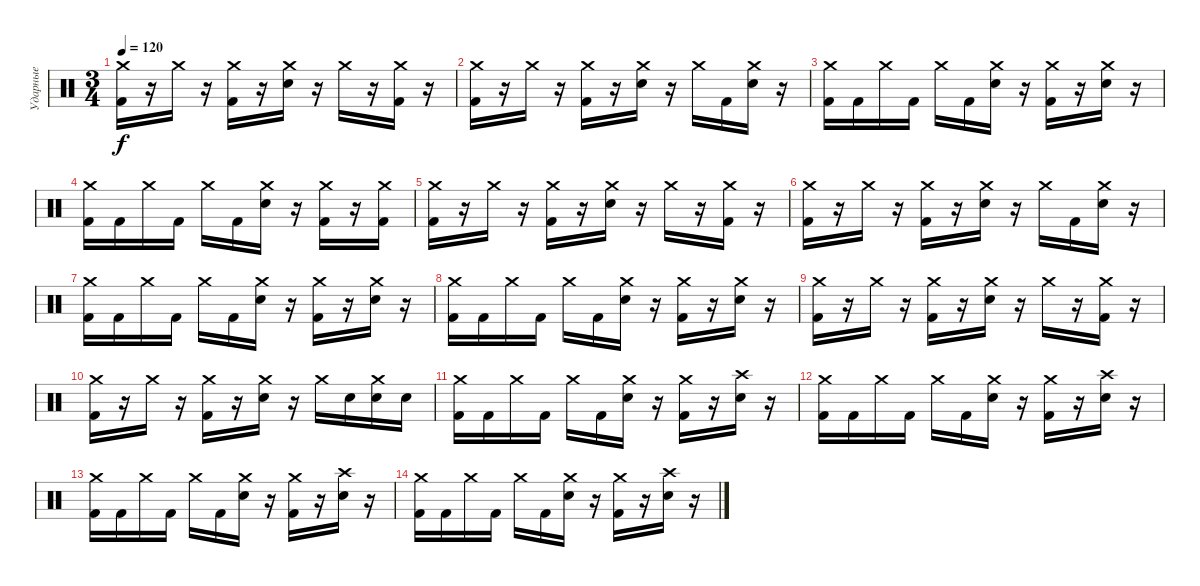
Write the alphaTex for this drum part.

\track ("Ударные" "Ударные") {instrument percussion}
\staff {score}
\articulation defaults
\ts (3 4)
\tempo 120
\clef neutral
\ks c
("Crash medium (hit)" "Kick (hit) 2").16{dy f} r.16 "Crash medium (hit)".16 r.16 ("Crash medium (hit)" "Kick (hit) 2").16 r.16 ("Crash medium (hit)" "Electric Snare (hit)").16 r.16 "Crash medium (hit)".16 r.16 ("Crash medium (hit)" "Kick (hit) 2").16 r.16 |
("Crash medium (hit)" "Kick (hit) 2").16 r.16 "Crash medium (hit)".16 r.16 ("Crash medium (hit)" "Kick (hit) 2").16 r.16 ("Crash medium (hit)" "Electric Snare (hit)").16 r.16 "Crash medium (hit)".16 "Kick (hit) 2".16 ("Crash medium (hit)" "Electric Snare (hit)").16 r.16 |
("Crash medium (hit)" "Kick (hit) 2").16 "Kick (hit) 2".16 "Crash medium (hit)".16 "Kick (hit) 2".16 "Crash medium (hit)".16 "Kick (hit) 2".16 ("Crash medium (hit)" "Electric Snare (hit)").16 r.16 ("Crash medium (hit)" "Kick (hit) 2").16 r.16 ("Crash medium (hit)" "Electric Snare (hit)").16 r.16 |
("Crash medium (hit)" "Kick (hit) 2").16 "Kick (hit) 2".16 "Crash medium (hit)".16 "Kick (hit) 2".16 "Crash medium (hit)".16 "Kick (hit) 2".16 ("Crash medium (hit)" "Electric Snare (hit)").16 r.16 ("Crash medium (hit)" "Kick (hit) 2").16 r.16 ("Crash medium (hit)" "Kick (hit) 2").16 |
("Crash medium (hit)" "Kick (hit) 2").16 r.16 "Crash medium (hit)".16 r.16 ("Crash medium (hit)" "Kick (hit) 2").16 r.16 ("Crash medium (hit)" "Electric Snare (hit)").16 r.16 "Crash medium (hit)".16 r.16 ("Crash medium (hit)" "Kick (hit) 2").16 r.16 |
("Crash medium (hit)" "Kick (hit) 2").16 r.16 "Crash medium (hit)".16 r.16 ("Crash medium (hit)" "Kick (hit) 2").16 r.16 ("Crash medium (hit)" "Electric Snare (hit)").16 r.16 "Crash medium (hit)".16 "Kick (hit) 2".16 ("Crash medium (hit)" "Electric Snare (hit)").16 r.16 |
("Crash medium (hit)" "Kick (hit) 2").16 "Kick (hit) 2".16 "Crash medium (hit)".16 "Kick (hit) 2".16 "Crash medium (hit)".16 "Kick (hit) 2".16 ("Crash medium (hit)" "Electric Snare (hit)").16 r.16 ("Crash medium (hit)" "Kick (hit) 2").16 r.16 ("Crash medium (hit)" "Electric Snare (hit)").16 r.16 |
("Crash medium (hit)" "Kick (hit) 2").16 "Kick (hit) 2".16 "Crash medium (hit)".16 "Kick (hit) 2".16 "Crash medium (hit)".16 "Kick (hit) 2".16 ("Crash medium (hit)" "Electric Snare (hit)").16 r.16 ("Crash medium (hit)" "Kick (hit) 2").16 r.16 ("Crash medium (hit)" "Electric Snare (hit)").16 r.16 |
("Crash medium (hit)" "Kick (hit) 2").16 r.16 "Crash medium (hit)".16 r.16 ("Crash medium (hit)" "Kick (hit) 2").16 r.16 ("Crash medium (hit)" "Electric Snare (hit)").16 r.16 "Crash medium (hit)".16 r.16 ("Crash medium (hit)" "Kick (hit) 2").16 r.16 |
("Crash medium (hit)" "Kick (hit) 2").16 r.16 "Crash medium (hit)".16 r.16 ("Crash medium (hit)" "Kick (hit) 2").16 r.16 ("Crash medium (hit)" "Electric Snare (hit)").16 r.16 "Crash medium (hit)".16 "Electric Snare (hit)".16 ("Crash medium (hit)" "Electric Snare (hit)").16 "Electric Snare (hit)".16 |
("Crash medium (hit)" "Kick (hit) 2").16 "Kick (hit) 2".16 "Crash medium (hit)".16 "Kick (hit) 2".16 "Crash medium (hit)".16 "Kick (hit) 2".16 ("Crash medium (hit)" "Electric Snare (hit)").16 r.16 ("Crash medium (hit)" "Kick (hit) 2").16 r.16 ("Crash high (hit)" "Electric Snare (hit)").16 r.16 |
("Crash medium (hit)" "Kick (hit) 2").16 "Kick (hit) 2".16 "Crash medium (hit)".16 "Kick (hit) 2".16 "Crash medium (hit)".16 "Kick (hit) 2".16 ("Crash medium (hit)" "Electric Snare (hit)").16 r.16 ("Crash medium (hit)" "Kick (hit) 2").16 r.16 ("Crash high (hit)" "Electric Snare (hit)").16 r.16 |
("Crash medium (hit)" "Kick (hit) 2").16 "Kick (hit) 2".16 "Crash medium (hit)".16 "Kick (hit) 2".16 "Crash medium (hit)".16 "Kick (hit) 2".16 ("Crash medium (hit)" "Electric Snare (hit)").16 r.16 ("Crash medium (hit)" "Kick (hit) 2").16 r.16 ("Crash high (hit)" "Electric Snare (hit)").16 r.16 |
("Crash medium (hit)" "Kick (hit) 2").16 "Kick (hit) 2".16 "Crash medium (hit)".16 "Kick (hit) 2".16 "Crash medium (hit)".16 "Kick (hit) 2".16 ("Crash medium (hit)" "Electric Snare (hit)").16 r.16 ("Crash medium (hit)" "Kick (hit) 2").16 r.16 ("Crash high (hit)" "Electric Snare (hit)").16 r.16
